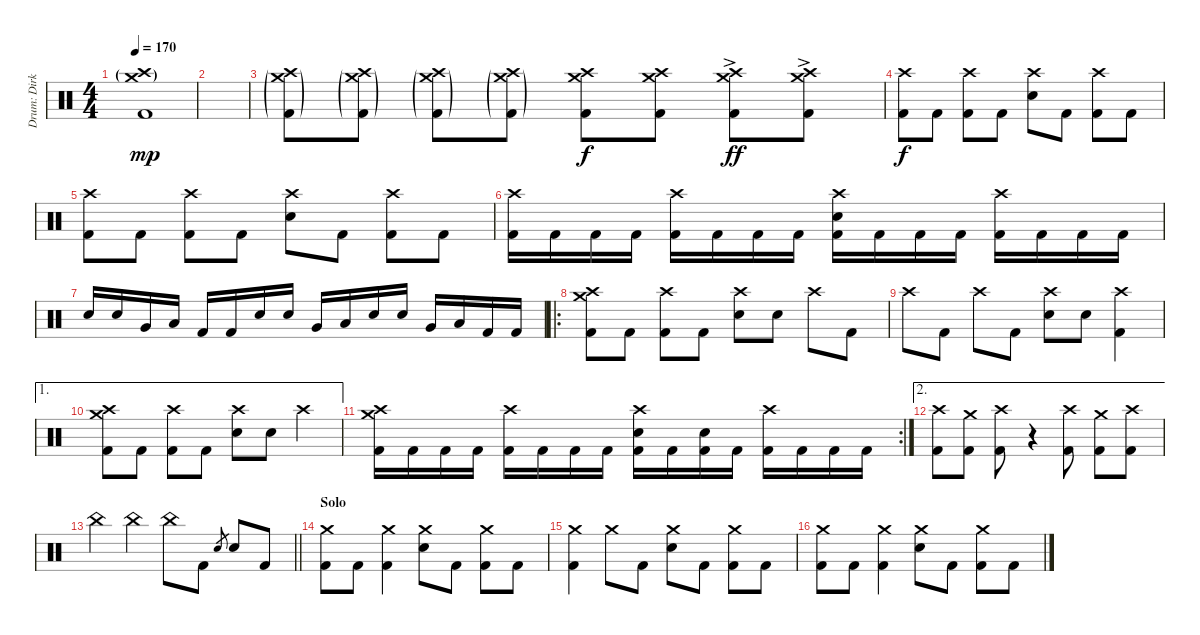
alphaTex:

\track ("Drum: Dirk" "Drum: Dirk") {instrument percussion}
\staff {score}
\articulation defaults
\ts (4 4)
\tempo 170
\clef neutral
\ks c
("Crash high (hit)"{g} "Crash medium (hit)"{g} "Kick (hit) 2").1{dy mp} |
|
("Crash high (hit)"{g} "Crash medium (hit)"{g} "Kick (hit) 2"{g}).8 ("Crash high (hit)"{g} "Crash medium (hit)"{g} "Kick (hit) 2"{g}).8 ("Crash high (hit)"{g} "Crash medium (hit)"{g} "Kick (hit) 2"{g}).8 ("Crash high (hit)"{g} "Crash medium (hit)"{g} "Kick (hit) 2"{g}).8 ("Crash high (hit)" "Crash medium (hit)" "Kick (hit) 2").8{dy f} ("Crash high (hit)" "Crash medium (hit)" "Kick (hit) 2").8 ("Crash high (hit)"{ac} "Crash medium (hit)"{ac} "Kick (hit) 2").8{dy ff} ("Crash high (hit)"{ac} "Crash medium (hit)"{ac} "Kick (hit) 2").8 |
("Crash high (hit)" "Kick (hit) 2").8{dy f} "Kick (hit) 2".8 ("Crash high (hit)" "Kick (hit) 2").8 "Kick (hit) 2".8 ("Crash high (hit)" "Electric Snare (hit)").8 "Kick (hit) 2".8 ("Crash high (hit)" "Kick (hit) 2").8 "Kick (hit) 2".8 |
("Crash high (hit)" "Kick (hit) 2").8 "Kick (hit) 2".8 ("Crash high (hit)" "Kick (hit) 2").8 "Kick (hit) 2".8 ("Crash high (hit)" "Electric Snare (hit)").8 "Kick (hit) 2".8 ("Crash high (hit)" "Kick (hit) 2").8 "Kick (hit) 2".8 |
("Crash high (hit)" "Kick (hit) 2").16 "Kick (hit) 2".16 "Kick (hit) 2".16 "Kick (hit) 2".16 ("Crash high (hit)" "Kick (hit) 2").16 "Kick (hit) 2".16 "Kick (hit) 2".16 "Kick (hit) 2".16 ("Crash high (hit)" "Electric Snare (hit)" "Kick (hit) 2").16 "Kick (hit) 2".16 "Kick (hit) 2".16 "Kick (hit) 2".16 ("Crash high (hit)" "Kick (hit) 2").16 "Kick (hit) 2".16 "Kick (hit) 2".16 "Kick (hit) 2".16 |
"Electric Snare (hit)".16 "Electric Snare (hit)".16 "Very Low Tom (hit)".16 "Low Tom (hit)".16 "Kick (hit) 2".16 "Kick (hit) 2".16 "Electric Snare (hit)".16 "Electric Snare (hit)".16 "Very Low Tom (hit)".16 "Low Tom (hit)".16 "Electric Snare (hit)".16 "Electric Snare (hit)".16 "Very Low Tom (hit)".16 "Low Tom (hit)".16 "Kick (hit) 2".16 "Kick (hit) 2".16 |
\ro
("Crash high (hit)" "Crash medium (hit)" "Kick (hit) 2").8 "Kick (hit) 2".8 ("Crash high (hit)" "Kick (hit) 2").8 "Kick (hit) 2".8 ("Crash high (hit)" "Electric Snare (hit)").8 "Electric Snare (hit)".8 "Crash high (hit)".8 "Kick (hit) 2".8 |
"Crash high (hit)".8 "Kick (hit) 2".8 "Crash high (hit)".8 "Kick (hit) 2".8 ("Crash high (hit)" "Electric Snare (hit)").8 "Electric Snare (hit)".8 ("Crash high (hit)" "Kick (hit) 2").4 |
\ae 1
("Crash high (hit)" "Crash medium (hit)" "Kick (hit) 2").8 "Kick (hit) 2".8 ("Crash high (hit)" "Kick (hit) 2").8 "Kick (hit) 2".8 ("Crash high (hit)" "Electric Snare (hit)").8 "Electric Snare (hit)".8 "Crash high (hit)".4 |
\rc 2
("Crash high (hit)" "Crash medium (hit)" "Kick (hit) 2").16 "Kick (hit) 2".16 "Kick (hit) 2".16 "Kick (hit) 2".16 ("Crash high (hit)" "Kick (hit) 2").16 "Kick (hit) 2".16 "Kick (hit) 2".16 "Kick (hit) 2".16 ("Crash high (hit)" "Electric Snare (hit)" "Kick (hit) 2").16 "Kick (hit) 2".16 ("Electric Snare (hit)" "Kick (hit) 2").16 "Kick (hit) 2".16 ("Crash high (hit)" "Kick (hit) 2").16 "Kick (hit) 2".16 "Kick (hit) 2".16 "Kick (hit) 2".16 |
\ae 2
("Crash high (hit)" "Kick (hit) 2").8 ("Crash medium (hit)" "Kick (hit) 2").8 ("Crash high (hit)" "Kick (hit) 2").8 r.4 ("Crash high (hit)" "Kick (hit) 2").8 ("Crash medium (hit)" "Kick (hit) 2").8 ("Crash high (hit)" "Kick (hit) 2").8 |
\barLineRight lightlight "China (hit)".4 "China (hit)".4 "China (hit)".8 "Kick (hit) 2".8 "Electric Snare (hit)".8{gr} "Electric Snare (hit)".8 "Kick (hit) 2".8
|
\section ("" "Solo")
("Crash medium (hit)" "Kick (hit) 2").8 "Kick (hit) 2".8 ("Crash medium (hit)" "Kick (hit) 2").4 ("Crash medium (hit)" "Electric Snare (hit)").8 "Kick (hit) 2".8 ("Crash medium (hit)" "Kick (hit) 2").8 "Kick (hit) 2".8 |
("Crash medium (hit)" "Kick (hit) 2").4 "Crash medium (hit)".8 "Kick (hit) 2".8 ("Crash medium (hit)" "Electric Snare (hit)").8 "Kick (hit) 2".8 ("Crash medium (hit)" "Kick (hit) 2").8 "Kick (hit) 2".8 |
("Crash medium (hit)" "Kick (hit) 2").8 "Kick (hit) 2".8 ("Crash medium (hit)" "Kick (hit) 2").4 ("Crash medium (hit)" "Electric Snare (hit)").8 "Kick (hit) 2".8 ("Crash medium (hit)" "Kick (hit) 2").8 "Kick (hit) 2".8
